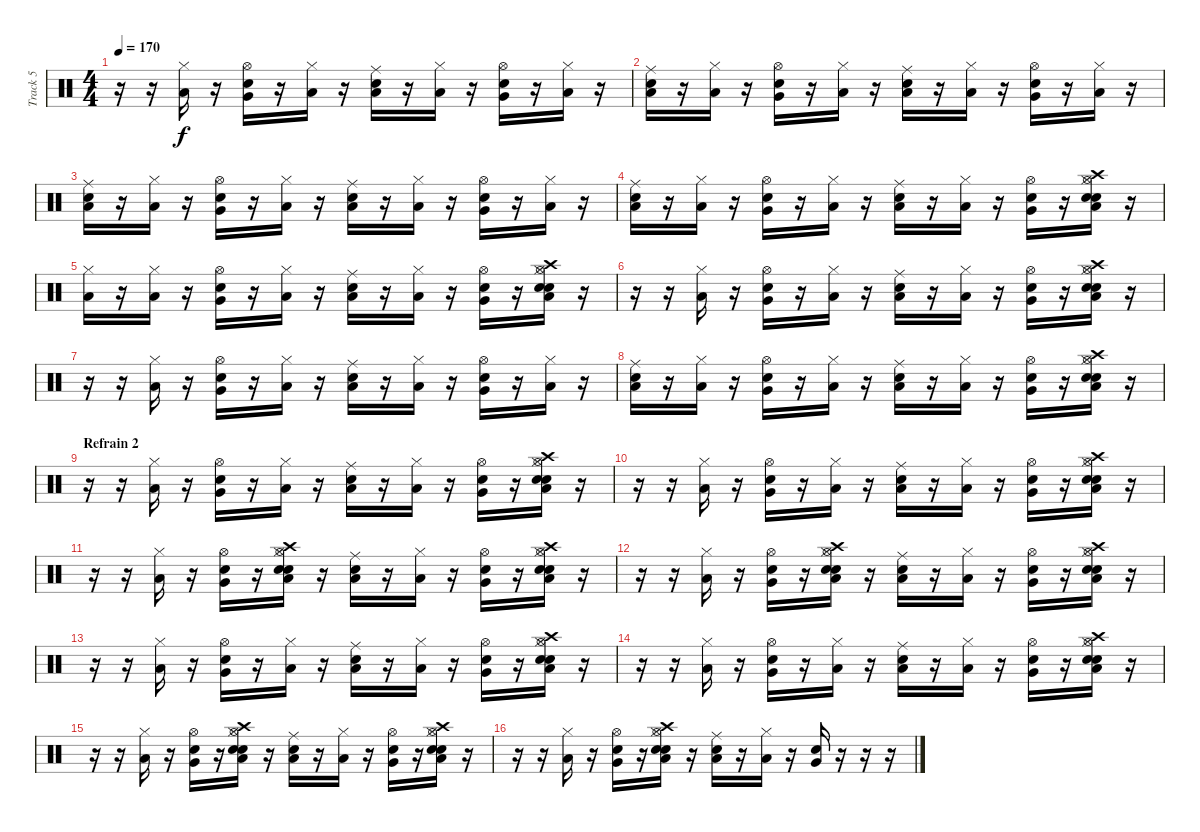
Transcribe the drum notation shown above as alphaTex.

\track ("Track 5" "Track 5") {instrument percussion}
\staff {score}
\articulation defaults
\ts (4 4)
\tempo 170
\clef neutral
\ks c
r.16{dy f} r.16 ("Low Tom (hit)" "Hi-Hat (closed)").16 r.16 ("Very Low Tom (hit)" "Electric Snare (hit)" "Hi-Hat (open)").16 r.16 ("Low Tom (hit)" "Hi-Hat (closed)").16 r.16 ("Ride (middle)" "Low Tom (hit)" "Snare (hit) 2").16 r.16 ("Low Tom (hit)" "Hi-Hat (closed)").16 r.16 ("Very Low Tom (hit)" "Electric Snare (hit)" "Hi-Hat (open)").16 r.16 ("Low Tom (hit)" "Hi-Hat (closed)").16 r.16 |
("Ride (middle)" "Low Tom (hit)" "Snare (hit) 2").16 r.16 ("Low Tom (hit)" "Hi-Hat (closed)").16 r.16 ("Very Low Tom (hit)" "Electric Snare (hit)" "Hi-Hat (open)").16 r.16 ("Low Tom (hit)" "Hi-Hat (closed)").16 r.16 ("Ride (middle)" "Low Tom (hit)" "Snare (hit) 2").16 r.16 ("Low Tom (hit)" "Hi-Hat (closed)").16 r.16 ("Very Low Tom (hit)" "Electric Snare (hit)" "Hi-Hat (open)").16 r.16 ("Low Tom (hit)" "Hi-Hat (closed)").16 r.16 |
("Ride (middle)" "Low Tom (hit)" "Snare (hit) 2").16 r.16 ("Low Tom (hit)" "Hi-Hat (closed)").16 r.16 ("Very Low Tom (hit)" "Electric Snare (hit)" "Hi-Hat (open)").16 r.16 ("Low Tom (hit)" "Hi-Hat (closed)").16 r.16 ("Ride (middle)" "Low Tom (hit)" "Snare (hit) 2").16 r.16 ("Low Tom (hit)" "Hi-Hat (closed)").16 r.16 ("Very Low Tom (hit)" "Electric Snare (hit)" "Hi-Hat (open)").16 r.16 ("Low Tom (hit)" "Hi-Hat (closed)").16 r.16 |
("Ride (middle)" "Low Tom (hit)" "Snare (hit) 2").16 r.16 ("Low Tom (hit)" "Hi-Hat (closed)").16 r.16 ("Very Low Tom (hit)" "Electric Snare (hit)" "Hi-Hat (open)").16 r.16 ("Low Tom (hit)" "Hi-Hat (closed)").16 r.16 ("Ride (middle)" "Low Tom (hit)" "Snare (hit) 2").16 r.16 ("Low Tom (hit)" "Hi-Hat (closed)").16 r.16 ("Very Low Tom (hit)" "Electric Snare (hit)" "Hi-Hat (open)").16 r.16 ("Low Tom (hit)" "Hi-Hat (closed)" "Snare (hit) 2" "Crash high (hit)" "Electric Snare (hit)" "Hi-Hat (open)").16 r.16 |
("Low Tom (hit)" "Hi-Hat (closed)").16 r.16 ("Low Tom (hit)" "Hi-Hat (closed)").16 r.16 ("Very Low Tom (hit)" "Electric Snare (hit)" "Hi-Hat (open)").16 r.16 ("Low Tom (hit)" "Hi-Hat (closed)").16 r.16 ("Ride (middle)" "Low Tom (hit)" "Snare (hit) 2").16 r.16 ("Low Tom (hit)" "Hi-Hat (closed)").16 r.16 ("Very Low Tom (hit)" "Electric Snare (hit)" "Hi-Hat (open)").16 r.16 ("Low Tom (hit)" "Hi-Hat (closed)" "Snare (hit) 2" "Crash high (hit)" "Electric Snare (hit)" "Hi-Hat (open)").16 r.16 |
r.16 r.16 ("Low Tom (hit)" "Hi-Hat (closed)").16 r.16 ("Very Low Tom (hit)" "Electric Snare (hit)" "Hi-Hat (open)").16 r.16 ("Low Tom (hit)" "Hi-Hat (closed)").16 r.16 ("Ride (middle)" "Low Tom (hit)" "Snare (hit) 2").16 r.16 ("Low Tom (hit)" "Hi-Hat (closed)").16 r.16 ("Very Low Tom (hit)" "Electric Snare (hit)" "Hi-Hat (open)").16 r.16 ("Low Tom (hit)" "Hi-Hat (closed)" "Snare (hit) 2" "Crash high (hit)" "Electric Snare (hit)" "Hi-Hat (open)").16 r.16 |
r.16 r.16 ("Low Tom (hit)" "Hi-Hat (closed)").16 r.16 ("Very Low Tom (hit)" "Electric Snare (hit)" "Hi-Hat (open)").16 r.16 ("Low Tom (hit)" "Hi-Hat (closed)").16 r.16 ("Ride (middle)" "Low Tom (hit)" "Snare (hit) 2").16 r.16 ("Low Tom (hit)" "Hi-Hat (closed)").16 r.16 ("Very Low Tom (hit)" "Electric Snare (hit)" "Hi-Hat (open)").16 r.16 ("Low Tom (hit)" "Hi-Hat (closed)").16 r.16 |
("Ride (middle)" "Low Tom (hit)" "Snare (hit) 2").16 r.16 ("Low Tom (hit)" "Hi-Hat (closed)").16 r.16 ("Very Low Tom (hit)" "Electric Snare (hit)" "Hi-Hat (open)").16 r.16 ("Low Tom (hit)" "Hi-Hat (closed)").16 r.16 ("Ride (middle)" "Low Tom (hit)" "Snare (hit) 2").16 r.16 ("Low Tom (hit)" "Hi-Hat (closed)").16 r.16 ("Very Low Tom (hit)" "Electric Snare (hit)" "Hi-Hat (open)").16 r.16 ("Low Tom (hit)" "Hi-Hat (closed)" "Snare (hit) 2" "Crash high (hit)" "Electric Snare (hit)" "Hi-Hat (open)").16 r.16 |
\section ("" "Refrain 2")
r.16 r.16 ("Low Tom (hit)" "Hi-Hat (closed)").16 r.16 ("Very Low Tom (hit)" "Electric Snare (hit)" "Hi-Hat (open)").16 r.16 ("Low Tom (hit)" "Hi-Hat (closed)").16 r.16 ("Ride (middle)" "Low Tom (hit)" "Snare (hit) 2").16 r.16 ("Low Tom (hit)" "Hi-Hat (closed)").16 r.16 ("Very Low Tom (hit)" "Electric Snare (hit)" "Hi-Hat (open)").16 r.16 ("Low Tom (hit)" "Hi-Hat (closed)" "Snare (hit) 2" "Crash high (hit)" "Electric Snare (hit)" "Hi-Hat (open)").16 r.16 |
r.16 r.16 ("Low Tom (hit)" "Hi-Hat (closed)").16 r.16 ("Very Low Tom (hit)" "Electric Snare (hit)" "Hi-Hat (open)").16 r.16 ("Low Tom (hit)" "Hi-Hat (closed)").16 r.16 ("Ride (middle)" "Low Tom (hit)" "Snare (hit) 2").16 r.16 ("Low Tom (hit)" "Hi-Hat (closed)").16 r.16 ("Very Low Tom (hit)" "Electric Snare (hit)" "Hi-Hat (open)").16 r.16 ("Low Tom (hit)" "Hi-Hat (closed)" "Snare (hit) 2" "Crash high (hit)" "Electric Snare (hit)" "Hi-Hat (open)").16 r.16 |
r.16 r.16 ("Low Tom (hit)" "Hi-Hat (closed)").16 r.16 ("Very Low Tom (hit)" "Electric Snare (hit)" "Hi-Hat (open)").16 r.16 ("Low Tom (hit)" "Hi-Hat (closed)" "Snare (hit) 2" "Crash high (hit)" "Electric Snare (hit)" "Hi-Hat (open)").16 r.16 ("Ride (middle)" "Low Tom (hit)" "Snare (hit) 2").16 r.16 ("Low Tom (hit)" "Hi-Hat (closed)").16 r.16 ("Very Low Tom (hit)" "Electric Snare (hit)" "Hi-Hat (open)").16 r.16 ("Low Tom (hit)" "Hi-Hat (closed)" "Snare (hit) 2" "Crash high (hit)" "Electric Snare (hit)" "Hi-Hat (open)").16 r.16 |
r.16 r.16 ("Low Tom (hit)" "Hi-Hat (closed)").16 r.16 ("Very Low Tom (hit)" "Electric Snare (hit)" "Hi-Hat (open)").16 r.16 ("Low Tom (hit)" "Hi-Hat (closed)" "Snare (hit) 2" "Crash high (hit)" "Electric Snare (hit)" "Hi-Hat (open)").16 r.16 ("Ride (middle)" "Low Tom (hit)" "Snare (hit) 2").16 r.16 ("Low Tom (hit)" "Hi-Hat (closed)").16 r.16 ("Very Low Tom (hit)" "Electric Snare (hit)" "Hi-Hat (open)").16 r.16 ("Low Tom (hit)" "Hi-Hat (closed)" "Snare (hit) 2" "Crash high (hit)" "Electric Snare (hit)" "Hi-Hat (open)").16 r.16 |
r.16 r.16 ("Low Tom (hit)" "Hi-Hat (closed)").16 r.16 ("Very Low Tom (hit)" "Electric Snare (hit)" "Hi-Hat (open)").16 r.16 ("Low Tom (hit)" "Hi-Hat (closed)").16 r.16 ("Ride (middle)" "Low Tom (hit)" "Snare (hit) 2").16 r.16 ("Low Tom (hit)" "Hi-Hat (closed)").16 r.16 ("Very Low Tom (hit)" "Electric Snare (hit)" "Hi-Hat (open)").16 r.16 ("Low Tom (hit)" "Hi-Hat (closed)" "Snare (hit) 2" "Crash high (hit)" "Electric Snare (hit)" "Hi-Hat (open)").16 r.16 |
r.16 r.16 ("Low Tom (hit)" "Hi-Hat (closed)").16 r.16 ("Very Low Tom (hit)" "Electric Snare (hit)" "Hi-Hat (open)").16 r.16 ("Low Tom (hit)" "Hi-Hat (closed)").16 r.16 ("Ride (middle)" "Low Tom (hit)" "Snare (hit) 2").16 r.16 ("Low Tom (hit)" "Hi-Hat (closed)").16 r.16 ("Very Low Tom (hit)" "Electric Snare (hit)" "Hi-Hat (open)").16 r.16 ("Low Tom (hit)" "Hi-Hat (closed)" "Snare (hit) 2" "Crash high (hit)" "Electric Snare (hit)" "Hi-Hat (open)").16 r.16 |
r.16 r.16 ("Low Tom (hit)" "Hi-Hat (closed)").16 r.16 ("Very Low Tom (hit)" "Electric Snare (hit)" "Hi-Hat (open)").16 r.16 ("Low Tom (hit)" "Hi-Hat (closed)" "Snare (hit) 2" "Crash high (hit)" "Electric Snare (hit)" "Hi-Hat (open)").16 r.16 ("Ride (middle)" "Low Tom (hit)" "Snare (hit) 2").16 r.16 ("Low Tom (hit)" "Hi-Hat (closed)").16 r.16 ("Very Low Tom (hit)" "Electric Snare (hit)" "Hi-Hat (open)").16 r.16 ("Low Tom (hit)" "Hi-Hat (closed)" "Snare (hit) 2" "Crash high (hit)" "Electric Snare (hit)" "Hi-Hat (open)").16 r.16 |
r.16 r.16 ("Low Tom (hit)" "Hi-Hat (closed)").16 r.16 ("Very Low Tom (hit)" "Electric Snare (hit)" "Hi-Hat (open)").16 r.16 ("Low Tom (hit)" "Hi-Hat (closed)" "Snare (hit) 2" "Crash high (hit)" "Electric Snare (hit)" "Hi-Hat (open)").16 r.16 ("Ride (middle)" "Low Tom (hit)" "Snare (hit) 2").16 r.16 ("Low Tom (hit)" "Hi-Hat (closed)").16 r.16 ("Very Low Tom (hit)" "Electric Snare (hit)").16 r.16 r.16 r.16
